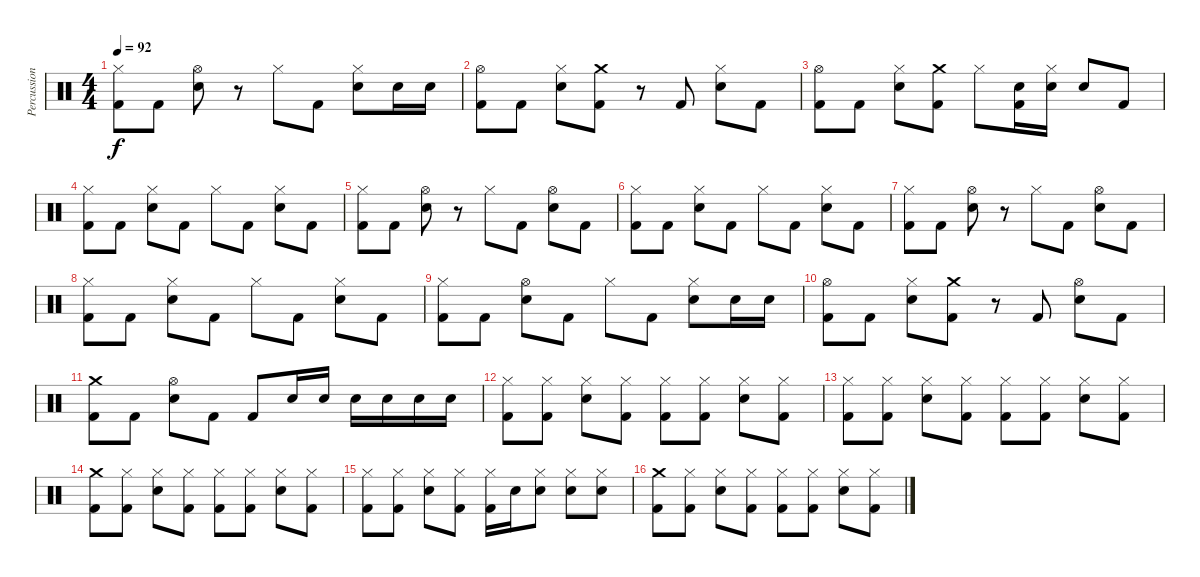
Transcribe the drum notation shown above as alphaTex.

\track ("Percussions" "Percussion") {instrument percussion}
\staff {score}
\articulation defaults
\ts (4 4)
\tempo 92
\clef neutral
\ks c
("Hi-Hat (closed)" "Kick (hit) 2").8{dy f} "Kick (hit) 2".8 ("Hi-Hat (open)" "Electric Snare (hit)").8 r.8 "Hi-Hat (closed)".8 "Kick (hit) 2".8 ("Hi-Hat (closed)" "Electric Snare (hit)").8 "Electric Snare (hit)".16 "Electric Snare (hit)".16 |
("Hi-Hat (open)" "Kick (hit) 2").8 "Kick (hit) 2".8 ("Hi-Hat (closed)" "Electric Snare (hit)").8 ("Crash medium (hit)" "Kick (hit) 2").8 r.8 "Kick (hit) 2".8 ("Hi-Hat (closed)" "Electric Snare (hit)").8 "Kick (hit) 2".8 |
("Hi-Hat (open)" "Kick (hit) 2").8 "Kick (hit) 2".8 ("Hi-Hat (closed)" "Electric Snare (hit)").8 ("Crash medium (hit)" "Kick (hit) 2").8 "Hi-Hat (closed)".8 ("Electric Snare (hit)" "Kick (hit) 2").16 ("Hi-Hat (closed)" "Electric Snare (hit)").16 "Electric Snare (hit)".8 "Kick (hit) 2".8 |
("Hi-Hat (closed)" "Kick (hit) 2").8 "Kick (hit) 2".8 ("Hi-Hat (closed)" "Electric Snare (hit)").8 "Kick (hit) 2".8 "Hi-Hat (closed)".8 "Kick (hit) 2".8 ("Hi-Hat (closed)" "Electric Snare (hit)").8 "Kick (hit) 2".8 |
("Hi-Hat (closed)" "Kick (hit) 2").8 "Kick (hit) 2".8 ("Hi-Hat (open)" "Electric Snare (hit)").8 r.8 "Hi-Hat (closed)".8 "Kick (hit) 2".8 ("Hi-Hat (open)" "Electric Snare (hit)").8 "Kick (hit) 2".8 |
("Hi-Hat (closed)" "Kick (hit) 2").8 "Kick (hit) 2".8 ("Hi-Hat (closed)" "Electric Snare (hit)").8 "Kick (hit) 2".8 "Hi-Hat (closed)".8 "Kick (hit) 2".8 ("Hi-Hat (closed)" "Electric Snare (hit)").8 "Kick (hit) 2".8 |
("Hi-Hat (closed)" "Kick (hit) 2").8 "Kick (hit) 2".8 ("Hi-Hat (open)" "Electric Snare (hit)").8 r.8 "Hi-Hat (closed)".8 "Kick (hit) 2".8 ("Hi-Hat (open)" "Electric Snare (hit)").8 "Kick (hit) 2".8 |
("Hi-Hat (closed)" "Kick (hit) 2").8 "Kick (hit) 2".8 ("Hi-Hat (closed)" "Electric Snare (hit)").8 "Kick (hit) 2".8 "Hi-Hat (closed)".8 "Kick (hit) 2".8 ("Hi-Hat (closed)" "Electric Snare (hit)").8 "Kick (hit) 2".8 |
("Hi-Hat (closed)" "Kick (hit) 2").8 "Kick (hit) 2".8 ("Hi-Hat (open)" "Electric Snare (hit)").8 "Kick (hit) 2".8 "Hi-Hat (closed)".8 "Kick (hit) 2".8 ("Hi-Hat (closed)" "Electric Snare (hit)").8 "Electric Snare (hit)".16 "Electric Snare (hit)".16 |
("Hi-Hat (open)" "Kick (hit) 2").8 "Kick (hit) 2".8 ("Hi-Hat (closed)" "Electric Snare (hit)").8 ("Crash medium (hit)" "Kick (hit) 2").8 r.8 "Kick (hit) 2".8 ("Hi-Hat (open)" "Electric Snare (hit)").8 "Kick (hit) 2".8 |
("Crash medium (hit)" "Kick (hit) 2").8 "Kick (hit) 2".8 ("Hi-Hat (open)" "Electric Snare (hit)").8 "Kick (hit) 2".8 "Kick (hit) 2".8 "Snare (hit) 2".16 "Snare (hit) 2".16 "Snare (hit) 2".16 "Electric Snare (hit)".16 "Electric Snare (hit)".16 "Electric Snare (hit)".16 |
("Hi-Hat (closed)" "Kick (hit) 2").8 ("Hi-Hat (closed)" "Kick (hit) 2").8 ("Hi-Hat (closed)" "Electric Snare (hit)").8 ("Hi-Hat (closed)" "Kick (hit) 2").8 ("Hi-Hat (closed)" "Kick (hit) 2").8 ("Hi-Hat (closed)" "Kick (hit) 2").8 ("Hi-Hat (closed)" "Electric Snare (hit)").8 ("Hi-Hat (closed)" "Kick (hit) 2").8 |
("Hi-Hat (closed)" "Kick (hit) 2").8 ("Hi-Hat (closed)" "Kick (hit) 2").8 ("Hi-Hat (closed)" "Electric Snare (hit)").8 ("Hi-Hat (closed)" "Kick (hit) 2").8 ("Hi-Hat (closed)" "Kick (hit) 2").8 ("Hi-Hat (closed)" "Kick (hit) 2").8 ("Hi-Hat (closed)" "Electric Snare (hit)").8 ("Hi-Hat (closed)" "Kick (hit) 2").8 |
("Crash medium (hit)" "Kick (hit) 2").8 ("Hi-Hat (closed)" "Kick (hit) 2").8 ("Hi-Hat (closed)" "Electric Snare (hit)").8 ("Hi-Hat (closed)" "Kick (hit) 2").8 ("Hi-Hat (closed)" "Kick (hit) 2").8 ("Hi-Hat (closed)" "Kick (hit) 2").8 ("Hi-Hat (closed)" "Electric Snare (hit)").8 ("Hi-Hat (closed)" "Kick (hit) 2").8 |
("Hi-Hat (closed)" "Kick (hit) 2").8 ("Hi-Hat (closed)" "Kick (hit) 2").8 ("Hi-Hat (closed)" "Electric Snare (hit)").8 ("Hi-Hat (closed)" "Kick (hit) 2").8 ("Hi-Hat (closed)" "Kick (hit) 2").16 "Electric Snare (hit)".16 ("Hi-Hat (closed)" "Electric Snare (hit)").8 ("Hi-Hat (closed)" "Electric Snare (hit)").8 ("Hi-Hat (closed)" "Electric Snare (hit)").8 |
("Crash medium (hit)" "Kick (hit) 2").8 ("Hi-Hat (closed)" "Kick (hit) 2").8 ("Hi-Hat (closed)" "Electric Snare (hit)").8 ("Hi-Hat (closed)" "Kick (hit) 2").8 ("Hi-Hat (closed)" "Kick (hit) 2").8 ("Hi-Hat (closed)" "Kick (hit) 2").8 ("Hi-Hat (closed)" "Electric Snare (hit)").8 ("Hi-Hat (closed)" "Kick (hit) 2").8
